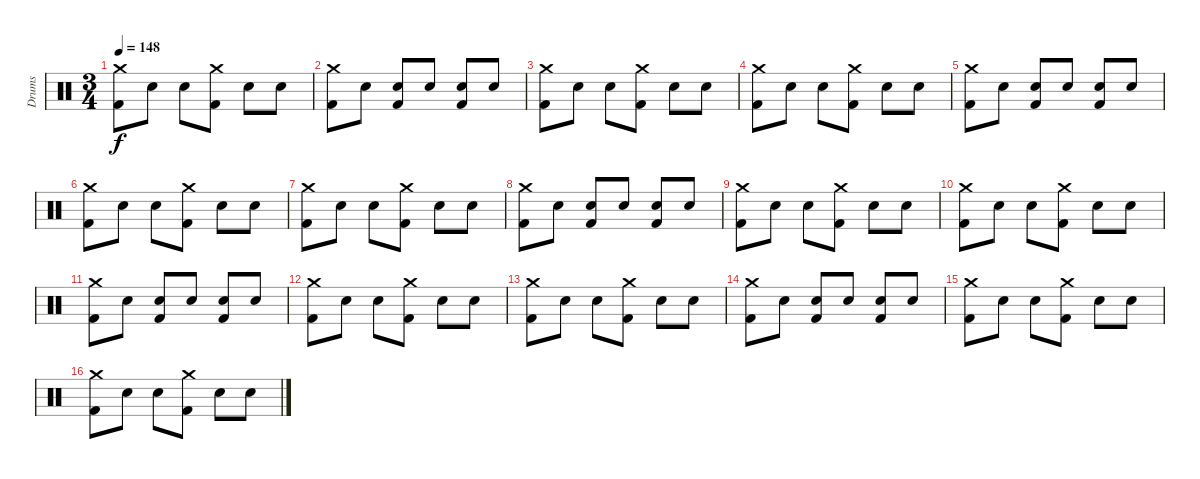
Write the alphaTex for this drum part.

\track ("Drums" "Drums") {instrument percussion}
\staff {score}
\articulation defaults
\ts (3 4)
\tempo 148
\clef neutral
\ks c
("Kick (hit) 2" "Crash medium (hit)").8{dy f} "Snare (hit) 2".8 "Snare (hit) 2".8 ("Kick (hit) 2" "Crash medium (hit)").8 "Snare (hit) 2".8 "Snare (hit) 2".8 |
("Kick (hit) 2" "Crash medium (hit)").8 "Snare (hit) 2".8 ("Snare (hit) 2" "Kick (hit) 2").8 "Snare (hit) 2".8 ("Snare (hit) 2" "Kick (hit) 2").8 "Snare (hit) 2".8 |
("Kick (hit) 2" "Crash medium (hit)").8 "Snare (hit) 2".8 "Snare (hit) 2".8 ("Kick (hit) 2" "Crash medium (hit)").8 "Snare (hit) 2".8 "Snare (hit) 2".8 |
("Kick (hit) 2" "Crash medium (hit)").8 "Snare (hit) 2".8 "Snare (hit) 2".8 ("Kick (hit) 2" "Crash medium (hit)").8 "Snare (hit) 2".8 "Snare (hit) 2".8 |
("Kick (hit) 2" "Crash medium (hit)").8 "Snare (hit) 2".8 ("Snare (hit) 2" "Kick (hit) 2").8 "Snare (hit) 2".8 ("Snare (hit) 2" "Kick (hit) 2").8 "Snare (hit) 2".8 |
("Kick (hit) 2" "Crash medium (hit)").8 "Snare (hit) 2".8 "Snare (hit) 2".8 ("Kick (hit) 2" "Crash medium (hit)").8 "Snare (hit) 2".8 "Snare (hit) 2".8 |
("Kick (hit) 2" "Crash medium (hit)").8 "Snare (hit) 2".8 "Snare (hit) 2".8 ("Kick (hit) 2" "Crash medium (hit)").8 "Snare (hit) 2".8 "Snare (hit) 2".8 |
("Kick (hit) 2" "Crash medium (hit)").8 "Snare (hit) 2".8 ("Snare (hit) 2" "Kick (hit) 2").8 "Snare (hit) 2".8 ("Snare (hit) 2" "Kick (hit) 2").8 "Snare (hit) 2".8 |
("Kick (hit) 2" "Crash medium (hit)").8 "Snare (hit) 2".8 "Snare (hit) 2".8 ("Kick (hit) 2" "Crash medium (hit)").8 "Snare (hit) 2".8 "Snare (hit) 2".8 |
("Kick (hit) 2" "Crash medium (hit)").8 "Snare (hit) 2".8 "Snare (hit) 2".8 ("Kick (hit) 2" "Crash medium (hit)").8 "Snare (hit) 2".8 "Snare (hit) 2".8 |
("Kick (hit) 2" "Crash medium (hit)").8 "Snare (hit) 2".8 ("Snare (hit) 2" "Kick (hit) 2").8 "Snare (hit) 2".8 ("Snare (hit) 2" "Kick (hit) 2").8 "Snare (hit) 2".8 |
("Kick (hit) 2" "Crash medium (hit)").8 "Snare (hit) 2".8 "Snare (hit) 2".8 ("Kick (hit) 2" "Crash medium (hit)").8 "Snare (hit) 2".8 "Snare (hit) 2".8 |
("Kick (hit) 2" "Crash medium (hit)").8 "Snare (hit) 2".8 "Snare (hit) 2".8 ("Kick (hit) 2" "Crash medium (hit)").8 "Snare (hit) 2".8 "Snare (hit) 2".8 |
("Kick (hit) 2" "Crash medium (hit)").8 "Snare (hit) 2".8 ("Snare (hit) 2" "Kick (hit) 2").8 "Snare (hit) 2".8 ("Snare (hit) 2" "Kick (hit) 2").8 "Snare (hit) 2".8 |
("Kick (hit) 2" "Crash medium (hit)").8 "Snare (hit) 2".8 "Snare (hit) 2".8 ("Kick (hit) 2" "Crash medium (hit)").8 "Snare (hit) 2".8 "Snare (hit) 2".8 |
("Kick (hit) 2" "Crash medium (hit)").8 "Snare (hit) 2".8 "Snare (hit) 2".8 ("Kick (hit) 2" "Crash medium (hit)").8 "Snare (hit) 2".8 "Snare (hit) 2".8
